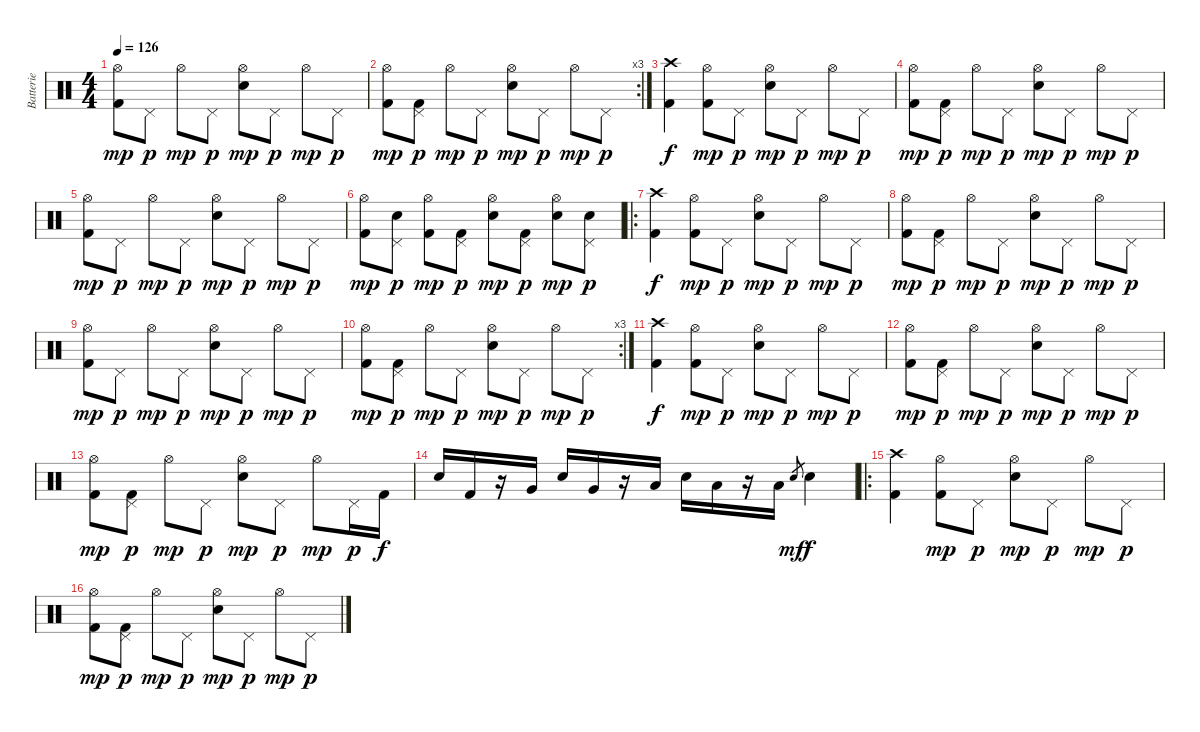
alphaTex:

\track ("Batterie" "Batterie") {instrument percussion}
\staff {score}
\articulation defaults
\ts (4 4)
\tempo 126
\clef neutral
\ks c
("Hi-Hat (open)" "Kick (hit) 2").8{dy mp} "Pedal Hi-Hat (hit)".8{dy p} "Hi-Hat (open)".8{dy mp} "Pedal Hi-Hat (hit)".8{dy p} ("Hi-Hat (open)" "Electric Snare (hit)").8{dy mp} "Pedal Hi-Hat (hit)".8{dy p} "Hi-Hat (open)".8{dy mp} "Pedal Hi-Hat (hit)".8{dy p} |
\rc 3
("Hi-Hat (open)" "Kick (hit) 2").8{dy mp} ("Pedal Hi-Hat (hit)" "Kick (hit) 2").8{dy p} "Hi-Hat (open)".8{dy mp} "Pedal Hi-Hat (hit)".8{dy p} ("Hi-Hat (open)" "Electric Snare (hit)").8{dy mp} "Pedal Hi-Hat (hit)".8{dy p} "Hi-Hat (open)".8{dy mp} "Pedal Hi-Hat (hit)".8{dy p} |
("Crash high (hit)" "Kick (hit) 2").4{dy f} ("Hi-Hat (open)" "Kick (hit) 2").8{dy mp} "Pedal Hi-Hat (hit)".8{dy p} ("Hi-Hat (open)" "Electric Snare (hit)").8{dy mp} "Pedal Hi-Hat (hit)".8{dy p} "Hi-Hat (open)".8{dy mp} "Pedal Hi-Hat (hit)".8{dy p} |
("Hi-Hat (open)" "Kick (hit) 2").8{dy mp} ("Pedal Hi-Hat (hit)" "Kick (hit) 2").8{dy p} "Hi-Hat (open)".8{dy mp} "Pedal Hi-Hat (hit)".8{dy p} ("Hi-Hat (open)" "Electric Snare (hit)").8{dy mp} "Pedal Hi-Hat (hit)".8{dy p} "Hi-Hat (open)".8{dy mp} "Pedal Hi-Hat (hit)".8{dy p} |
("Hi-Hat (open)" "Kick (hit) 2").8{dy mp} "Pedal Hi-Hat (hit)".8{dy p} "Hi-Hat (open)".8{dy mp} "Pedal Hi-Hat (hit)".8{dy p} ("Hi-Hat (open)" "Electric Snare (hit)").8{dy mp} "Pedal Hi-Hat (hit)".8{dy p} "Hi-Hat (open)".8{dy mp} "Pedal Hi-Hat (hit)".8{dy p} |
("Hi-Hat (open)" "Kick (hit) 2").8{dy mp} ("Pedal Hi-Hat (hit)" "Electric Snare (hit)").8{dy p} ("Hi-Hat (open)" "Kick (hit) 2").8{dy mp} ("Pedal Hi-Hat (hit)" "Kick (hit) 2").8{dy p} ("Hi-Hat (open)" "Electric Snare (hit)").8{dy mp} ("Pedal Hi-Hat (hit)" "Kick (hit) 2").8{dy p} ("Hi-Hat (open)" "Electric Snare (hit)").8{dy mp} ("Pedal Hi-Hat (hit)" "Electric Snare (hit)").8{dy p} |
\ro
("Crash high (hit)" "Kick (hit) 2").4{dy f} ("Hi-Hat (open)" "Kick (hit) 2").8{dy mp} "Pedal Hi-Hat (hit)".8{dy p} ("Hi-Hat (open)" "Electric Snare (hit)").8{dy mp} "Pedal Hi-Hat (hit)".8{dy p} "Hi-Hat (open)".8{dy mp} "Pedal Hi-Hat (hit)".8{dy p} |
("Hi-Hat (open)" "Kick (hit) 2").8{dy mp} ("Pedal Hi-Hat (hit)" "Kick (hit) 2").8{dy p} "Hi-Hat (open)".8{dy mp} "Pedal Hi-Hat (hit)".8{dy p} ("Hi-Hat (open)" "Electric Snare (hit)").8{dy mp} "Pedal Hi-Hat (hit)".8{dy p} "Hi-Hat (open)".8{dy mp} "Pedal Hi-Hat (hit)".8{dy p} |
("Hi-Hat (open)" "Kick (hit) 2").8{dy mp} "Pedal Hi-Hat (hit)".8{dy p} "Hi-Hat (open)".8{dy mp} "Pedal Hi-Hat (hit)".8{dy p} ("Hi-Hat (open)" "Electric Snare (hit)").8{dy mp} "Pedal Hi-Hat (hit)".8{dy p} "Hi-Hat (open)".8{dy mp} "Pedal Hi-Hat (hit)".8{dy p} |
\rc 3
("Hi-Hat (open)" "Kick (hit) 2").8{dy mp} ("Pedal Hi-Hat (hit)" "Kick (hit) 2").8{dy p} "Hi-Hat (open)".8{dy mp} "Pedal Hi-Hat (hit)".8{dy p} ("Hi-Hat (open)" "Electric Snare (hit)").8{dy mp} "Pedal Hi-Hat (hit)".8{dy p} "Hi-Hat (open)".8{dy mp} "Pedal Hi-Hat (hit)".8{dy p} |
("Crash high (hit)" "Kick (hit) 2").4{dy f} ("Hi-Hat (open)" "Kick (hit) 2").8{dy mp} "Pedal Hi-Hat (hit)".8{dy p} ("Hi-Hat (open)" "Electric Snare (hit)").8{dy mp} "Pedal Hi-Hat (hit)".8{dy p} "Hi-Hat (open)".8{dy mp} "Pedal Hi-Hat (hit)".8{dy p} |
("Hi-Hat (open)" "Kick (hit) 2").8{dy mp} ("Pedal Hi-Hat (hit)" "Kick (hit) 2").8{dy p} "Hi-Hat (open)".8{dy mp} "Pedal Hi-Hat (hit)".8{dy p} ("Hi-Hat (open)" "Electric Snare (hit)").8{dy mp} "Pedal Hi-Hat (hit)".8{dy p} "Hi-Hat (open)".8{dy mp} "Pedal Hi-Hat (hit)".8{dy p} |
("Hi-Hat (open)" "Kick (hit) 2").8{dy mp} ("Pedal Hi-Hat (hit)" "Kick (hit) 2").8{dy p} "Hi-Hat (open)".8{dy mp} "Pedal Hi-Hat (hit)".8{dy p} ("Hi-Hat (open)" "Electric Snare (hit)").8{dy mp} "Pedal Hi-Hat (hit)".8{dy p} "Hi-Hat (open)".8{dy mp} "Pedal Hi-Hat (hit)".16{dy p} "Kick (hit) 2".16{dy f} |
"Electric Snare (hit)".16 "Kick (hit) 2".16 r.16 "Very Low Tom (hit)".16 "Electric Snare (hit)".16 "Very Low Tom (hit)".16 r.16 "Low Tom (hit)".16 "Electric Snare (hit)".16 "Low Tom (hit)".16 r.16 "Low Tom (hit)".16 "Electric Snare (hit)".8{gr dy mf} "Electric Snare (hit)".4{dy f} |
\ro
("Crash high (hit)" "Kick (hit) 2").4 ("Hi-Hat (open)" "Kick (hit) 2").8{dy mp} "Pedal Hi-Hat (hit)".8{dy p} ("Hi-Hat (open)" "Electric Snare (hit)").8{dy mp} "Pedal Hi-Hat (hit)".8{dy p} "Hi-Hat (open)".8{dy mp} "Pedal Hi-Hat (hit)".8{dy p} |
("Hi-Hat (open)" "Kick (hit) 2").8{dy mp} ("Pedal Hi-Hat (hit)" "Kick (hit) 2").8{dy p} "Hi-Hat (open)".8{dy mp} "Pedal Hi-Hat (hit)".8{dy p} ("Hi-Hat (open)" "Electric Snare (hit)").8{dy mp} "Pedal Hi-Hat (hit)".8{dy p} "Hi-Hat (open)".8{dy mp} "Pedal Hi-Hat (hit)".8{dy p}
